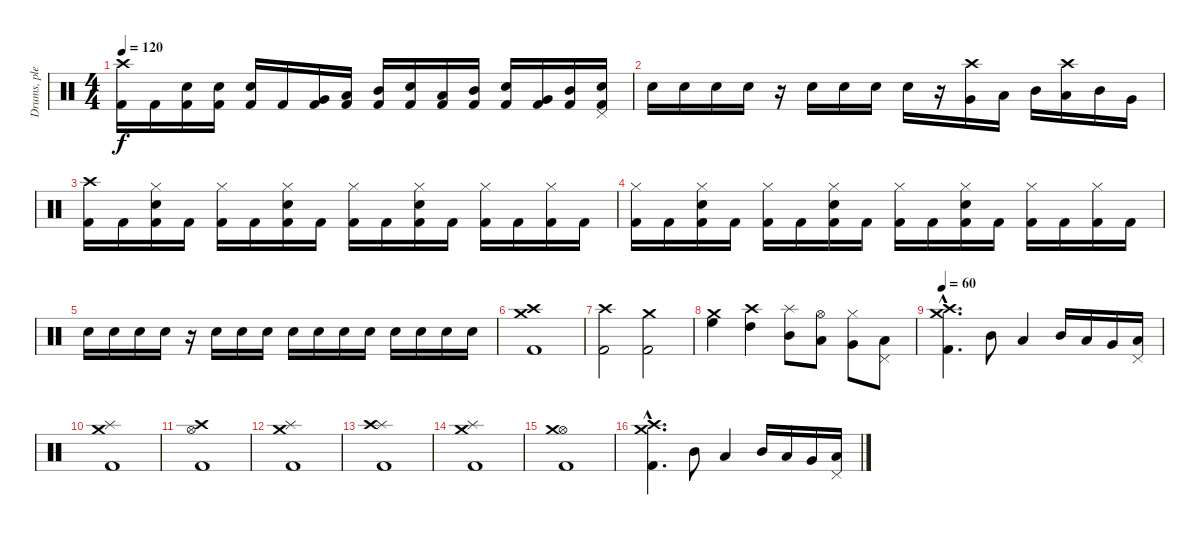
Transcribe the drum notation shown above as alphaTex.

\track ("Drums, please" "Drums, ple") {instrument percussion}
\staff {score}
\articulation defaults
\ts (4 4)
\tempo 120
\clef neutral
\ks c
("Kick (hit) 2" "Crash high (hit)").16{dy f} "Kick (hit) 2".16 ("Kick (hit) 2" "Electric Snare (hit)").16 ("Kick (hit) 2" "Electric Snare (hit)").16 ("Kick (hit) 2" "Electric Snare (hit)").16 "Kick (hit) 2".16 ("Kick (hit) 2" "Very Low Tom (hit)").16 ("Kick (hit) 2" "Low Tom (hit)").16 ("Kick (hit) 2" "Mid Tom (hit)").16 ("Kick (hit) 2" "Electric Snare (hit)").16 ("Kick (hit) 2" "Low Tom (hit)").16 ("Kick (hit) 2" "Mid Tom (hit)").16 ("Kick (hit) 2" "Electric Snare (hit)").16 ("Kick (hit) 2" "Very Low Tom (hit)").16 ("Kick (hit) 2" "Mid Tom (hit)").16 ("Kick (hit) 2" "Electric Snare (hit)" "Pedal Hi-Hat (hit)").16 |
"Electric Snare (hit)".16 "Electric Snare (hit)".16 "Electric Snare (hit)".16 "Electric Snare (hit)".16 r.16 "Electric Snare (hit)".16 "Electric Snare (hit)".16 "Electric Snare (hit)".16 "Electric Snare (hit)".16 r.16 ("Very Low Tom (hit)" "Crash high (hit)").16 "Low Tom (hit)".16 "Mid Tom (hit)".16 ("Low Tom (hit)" "Crash high (hit)").16 "Mid Tom (hit)".16 "Very Low Tom (hit)".16 |
("Kick (hit) 2" "Crash high (hit)").16 "Kick (hit) 2".16 ("Kick (hit) 2" "Electric Snare (hit)" "Hi-Hat (closed)").16 "Kick (hit) 2".16 ("Kick (hit) 2" "Hi-Hat (closed)").16 "Kick (hit) 2".16 ("Kick (hit) 2" "Electric Snare (hit)" "Hi-Hat (closed)").16 "Kick (hit) 2".16 ("Kick (hit) 2" "Hi-Hat (closed)").16 "Kick (hit) 2".16 ("Kick (hit) 2" "Electric Snare (hit)" "Hi-Hat (closed)").16 "Kick (hit) 2".16 ("Kick (hit) 2" "Hi-Hat (closed)").16 "Kick (hit) 2".16 ("Kick (hit) 2" "Hi-Hat (closed)").16 "Kick (hit) 2".16 |
("Kick (hit) 2" "Hi-Hat (closed)").16 "Kick (hit) 2".16 ("Kick (hit) 2" "Electric Snare (hit)" "Hi-Hat (closed)").16 "Kick (hit) 2".16 ("Kick (hit) 2" "Hi-Hat (closed)").16 "Kick (hit) 2".16 ("Kick (hit) 2" "Electric Snare (hit)" "Hi-Hat (closed)").16 "Kick (hit) 2".16 ("Kick (hit) 2" "Hi-Hat (closed)").16 "Kick (hit) 2".16 ("Kick (hit) 2" "Electric Snare (hit)" "Hi-Hat (closed)").16 "Kick (hit) 2".16 ("Kick (hit) 2" "Hi-Hat (closed)").16 "Kick (hit) 2".16 ("Kick (hit) 2" "Hi-Hat (closed)").16 "Kick (hit) 2".16 |
"Electric Snare (hit)".16 "Electric Snare (hit)".16 "Electric Snare (hit)".16 "Electric Snare (hit)".16 r.16 "Electric Snare (hit)".16 "Electric Snare (hit)".16 "Electric Snare (hit)".16 "Electric Snare (hit)".16 "Electric Snare (hit)".16 "Electric Snare (hit)".16 "Electric Snare (hit)".16 "Electric Snare (hit)".16 "Electric Snare (hit)".16 "Electric Snare (hit)".16 "Electric Snare (hit)".16 |
("Kick (hit) 2" "Crash medium (hit)" "Crash high (hit)").1 |
("Kick (hit) 2" "Crash high (hit)").2 ("Kick (hit) 2" "Crash medium (hit)").2 |
("High Floor Tom (hit)" "Crash medium (hit)").4 ("High Tom (hit)" "Crash high (hit)").4 ("Mid Tom (hit)" "Splash (hit)").8 ("Low Tom (hit)" "Hi-Hat (open)").8 ("Very Low Tom (hit)" "Hi-Hat (closed)").8 ("Low Floor Tom (hit)" "Pedal Hi-Hat (hit)").8 |
\tempo 60
("Kick (hit) 2"{hac} "Crash medium (hit)"{hac} "Crash high (hit)"{hac}).4{d} "Mid Tom (hit)".8 "Low Tom (hit)".4 "Mid Tom (hit)".16 "Low Tom (hit)".16 "Very Low Tom (hit)".16 ("Low Floor Tom (hit)" "Pedal Hi-Hat (hit)").16 |
("Kick (hit) 2" "Splash (hit)" "Crash medium (hit)").1 |
("Kick (hit) 2" "Hi-Hat (open)" "Crash high (hit)").1 |
("Kick (hit) 2" "Splash (hit)" "Crash medium (hit)").1 |
("Kick (hit) 2" "Splash (hit)" "Crash high (hit)").1 |
("Kick (hit) 2" "Splash (hit)" "Crash medium (hit)").1 |
("Kick (hit) 2" "Hi-Hat (open)" "Crash medium (hit)").1 |
("Kick (hit) 2"{hac} "Crash medium (hit)"{hac} "Crash high (hit)"{hac}).4{d} "Mid Tom (hit)".8 "Low Tom (hit)".4 "Mid Tom (hit)".16 "Low Tom (hit)".16 "Very Low Tom (hit)".16 ("Low Floor Tom (hit)" "Pedal Hi-Hat (hit)").16
